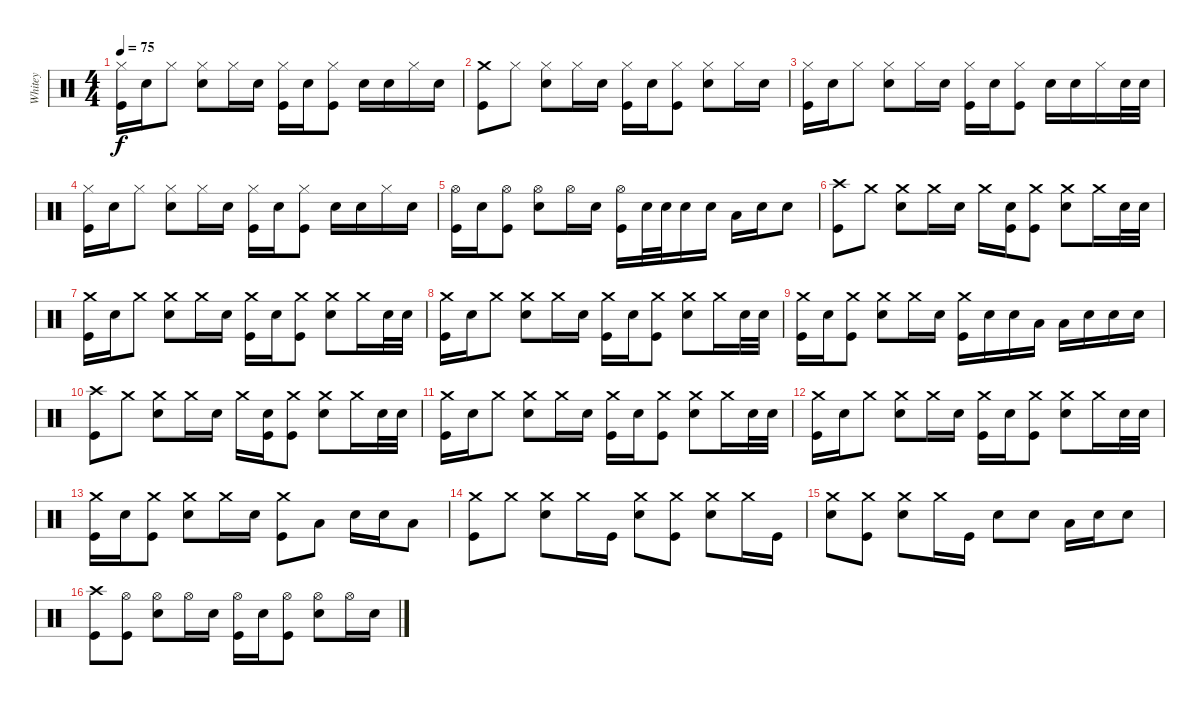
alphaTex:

\track ("Whitey" "Whitey") {instrument percussion}
\staff {score}
\articulation defaults
\ts (4 4)
\tempo 75
\clef neutral
\ks c
("Hi-Hat (closed)" "Kick (hit)").16{dy f} "Snare (hit) 2".16 "Hi-Hat (closed)".8 ("Hi-Hat (closed)" "Snare (hit) 2").8 "Hi-Hat (closed)".16 "Snare (hit) 2".16 ("Hi-Hat (closed)" "Kick (hit)").16 "Snare (hit) 2".16 ("Hi-Hat (closed)" "Kick (hit)").8 "Snare (hit) 2".16 "Snare (hit) 2".16 "Hi-Hat (closed)".16 "Snare (hit) 2".16 |
("Crash medium (hit)" "Kick (hit)").8 "Hi-Hat (closed)".8 ("Hi-Hat (closed)" "Snare (hit) 2").8 "Hi-Hat (closed)".16 "Snare (hit) 2".16 ("Hi-Hat (closed)" "Kick (hit)").16 "Snare (hit) 2".16 ("Hi-Hat (closed)" "Kick (hit)").8 ("Hi-Hat (closed)" "Snare (hit) 2").8 "Hi-Hat (closed)".16 "Snare (hit) 2".16 |
("Hi-Hat (closed)" "Kick (hit)").16 "Snare (hit) 2".16 "Hi-Hat (closed)".8 ("Hi-Hat (closed)" "Snare (hit) 2").8 "Hi-Hat (closed)".16 "Snare (hit) 2".16 ("Hi-Hat (closed)" "Kick (hit)").16 "Snare (hit) 2".16 ("Hi-Hat (closed)" "Kick (hit)").8 "Snare (hit) 2".16 "Snare (hit) 2".16 "Hi-Hat (closed)".16 "Snare (hit) 2".32 "Snare (hit) 2".32 |
("Hi-Hat (closed)" "Kick (hit)").16 "Snare (hit) 2".16 "Hi-Hat (closed)".8 ("Hi-Hat (closed)" "Snare (hit) 2").8 "Hi-Hat (closed)".16 "Snare (hit) 2".16 ("Hi-Hat (closed)" "Kick (hit)").16 "Snare (hit) 2".16 ("Hi-Hat (closed)" "Kick (hit)").8 "Snare (hit) 2".16 "Snare (hit) 2".16 "Hi-Hat (closed)".16 "Snare (hit) 2".16 |
("Hi-Hat (open)" "Kick (hit)").16 "Snare (hit) 2".16 ("Hi-Hat (open)" "Kick (hit)").8 ("Hi-Hat (open)" "Snare (hit) 2").8 "Hi-Hat (open)".16 "Snare (hit) 2".16 ("Hi-Hat (open)" "Kick (hit)").16 "Snare (hit) 2".32 "Snare (hit) 2".32 "Snare (hit) 2".16 "Snare (hit) 2".16 "Low Tom (hit)".16 "Snare (hit) 2".16 "Snare (hit) 2".8 |
("Crash high (hit)" "Kick (hit)").8 "Crash medium (hit)".8 ("Crash medium (hit)" "Snare (hit) 2").8 "Crash medium (hit)".16 "Snare (hit) 2".16 "Crash medium (hit)".16 ("Snare (hit) 2" "Kick (hit)").16 ("Crash medium (hit)" "Kick (hit)").8 ("Crash medium (hit)" "Snare (hit) 2").8 "Crash medium (hit)".16 "Snare (hit) 2".32 "Snare (hit) 2".32 |
("Crash medium (hit)" "Kick (hit)").16 "Snare (hit) 2".16 "Crash medium (hit)".8 ("Crash medium (hit)" "Snare (hit) 2").8 "Crash medium (hit)".16 "Snare (hit) 2".16 ("Crash medium (hit)" "Kick (hit)").16 "Snare (hit) 2".16 ("Crash medium (hit)" "Kick (hit)").8 ("Crash medium (hit)" "Snare (hit) 2").8 "Crash medium (hit)".16 "Snare (hit) 2".32 "Snare (hit) 2".32 |
("Crash medium (hit)" "Kick (hit)").16 "Snare (hit) 2".16 "Crash medium (hit)".8 ("Crash medium (hit)" "Snare (hit) 2").8 "Crash medium (hit)".16 "Snare (hit) 2".16 ("Crash medium (hit)" "Kick (hit)").16 "Snare (hit) 2".16 ("Crash medium (hit)" "Kick (hit)").8 ("Crash medium (hit)" "Snare (hit) 2").8 "Crash medium (hit)".16 "Snare (hit) 2".32 "Snare (hit) 2".32 |
("Crash medium (hit)" "Kick (hit)").16 "Snare (hit) 2".16 ("Crash medium (hit)" "Kick (hit)").8 ("Crash medium (hit)" "Snare (hit) 2").8 "Crash medium (hit)".16 "Snare (hit) 2".16 ("Crash medium (hit)" "Kick (hit)").16 "Snare (hit) 2".16 "Snare (hit) 2".16 "Low Tom (hit)".16 "Low Tom (hit)".16 "Snare (hit) 2".16 "Snare (hit) 2".16 "Snare (hit) 2".16 |
("Crash high (hit)" "Kick (hit)").8 "Crash medium (hit)".8 ("Crash medium (hit)" "Snare (hit) 2").8 "Crash medium (hit)".16 "Snare (hit) 2".16 "Crash medium (hit)".16 ("Snare (hit) 2" "Kick (hit)").16 ("Crash medium (hit)" "Kick (hit)").8 ("Crash medium (hit)" "Snare (hit) 2").8 "Crash medium (hit)".16 "Snare (hit) 2".32 "Snare (hit) 2".32 |
("Crash medium (hit)" "Kick (hit)").16 "Snare (hit) 2".16 "Crash medium (hit)".8 ("Crash medium (hit)" "Snare (hit) 2").8 "Crash medium (hit)".16 "Snare (hit) 2".16 ("Crash medium (hit)" "Kick (hit)").16 "Snare (hit) 2".16 ("Crash medium (hit)" "Kick (hit)").8 ("Crash medium (hit)" "Snare (hit) 2").8 "Crash medium (hit)".16 "Snare (hit) 2".32 "Snare (hit) 2".32 |
("Crash medium (hit)" "Kick (hit)").16 "Snare (hit) 2".16 "Crash medium (hit)".8 ("Crash medium (hit)" "Snare (hit) 2").8 "Crash medium (hit)".16 "Snare (hit) 2".16 ("Crash medium (hit)" "Kick (hit)").16 "Snare (hit) 2".16 ("Crash medium (hit)" "Kick (hit)").8 ("Crash medium (hit)" "Snare (hit) 2").8 "Crash medium (hit)".16 "Snare (hit) 2".32 "Snare (hit) 2".32 |
("Crash medium (hit)" "Kick (hit)").16 "Snare (hit) 2".16 ("Crash medium (hit)" "Kick (hit)").8 ("Crash medium (hit)" "Snare (hit) 2").8 "Crash medium (hit)".16 "Snare (hit) 2".16 ("Crash medium (hit)" "Kick (hit)").8 "Low Tom (hit)".8 "Snare (hit) 2".16 "Snare (hit) 2".16 "Low Tom (hit)".8 |
("Crash medium (hit)" "Kick (hit)").8 "Crash medium (hit)".8 ("Crash medium (hit)" "Snare (hit) 2").8 "Crash medium (hit)".16 "Kick (hit)".16 ("Crash medium (hit)" "Snare (hit) 2").8 ("Crash medium (hit)" "Kick (hit)").8 ("Crash medium (hit)" "Snare (hit) 2").8 "Crash medium (hit)".16 "Kick (hit)".16 |
("Crash medium (hit)" "Snare (hit) 2").8 ("Crash medium (hit)" "Kick (hit)").8 ("Crash medium (hit)" "Snare (hit) 2").8 "Crash medium (hit)".16 "Kick (hit)".16 "Snare (hit) 2".8 "Snare (hit) 2".8 "Low Tom (hit)".16 "Snare (hit) 2".16 "Snare (hit) 2".8 |
("Crash high (hit)" "Kick (hit)").8 ("Hi-Hat (open)" "Kick (hit)").8 ("Hi-Hat (open)" "Snare (hit) 2").8 "Hi-Hat (open)".16 "Snare (hit) 2".16 ("Hi-Hat (open)" "Kick (hit)").16 "Snare (hit) 2".16 ("Hi-Hat (open)" "Kick (hit)").8 ("Hi-Hat (open)" "Snare (hit) 2").8 "Hi-Hat (open)".16 "Snare (hit) 2".16
